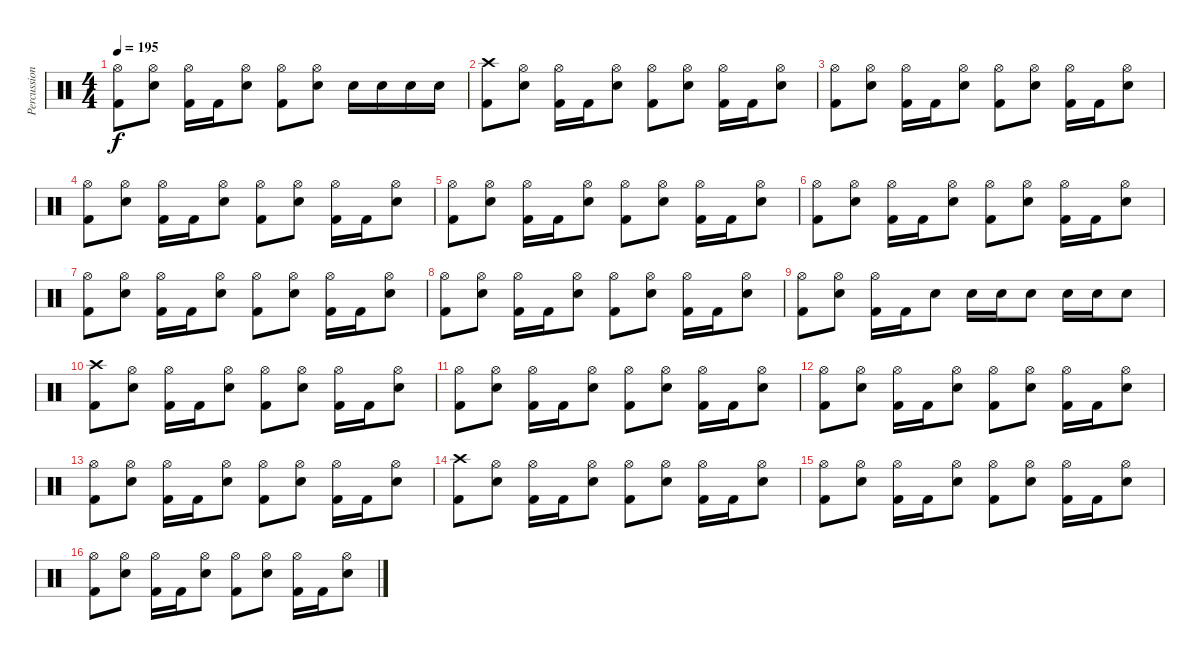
\track ("Percussion" "Percussion") {instrument percussion}
\staff {score}
\articulation defaults
\ts (4 4)
\tempo 195
\clef neutral
\ks c
("Hi-Hat (open)" "Kick (hit) 2").8{dy f} ("Hi-Hat (open)" "Electric Snare (hit)").8 ("Hi-Hat (open)" "Kick (hit) 2").16 "Kick (hit) 2".16 ("Hi-Hat (open)" "Electric Snare (hit)").8 ("Hi-Hat (open)" "Kick (hit) 2").8 ("Hi-Hat (open)" "Electric Snare (hit)").8 "Electric Snare (hit)".16 "Electric Snare (hit)".16 "Electric Snare (hit)".16 "Electric Snare (hit)".16 |
("Crash high (hit)" "Kick (hit) 2").8 ("Hi-Hat (open)" "Electric Snare (hit)").8 ("Hi-Hat (open)" "Kick (hit) 2").16 "Kick (hit) 2".16 ("Hi-Hat (open)" "Electric Snare (hit)").8 ("Hi-Hat (open)" "Kick (hit) 2").8 ("Hi-Hat (open)" "Electric Snare (hit)").8 ("Hi-Hat (open)" "Kick (hit) 2").16 "Kick (hit) 2".16 ("Hi-Hat (open)" "Electric Snare (hit)").8 |
("Hi-Hat (open)" "Kick (hit) 2").8 ("Hi-Hat (open)" "Electric Snare (hit)").8 ("Hi-Hat (open)" "Kick (hit) 2").16 "Kick (hit) 2".16 ("Hi-Hat (open)" "Electric Snare (hit)").8 ("Hi-Hat (open)" "Kick (hit) 2").8 ("Hi-Hat (open)" "Electric Snare (hit)").8 ("Hi-Hat (open)" "Kick (hit) 2").16 "Kick (hit) 2".16 ("Hi-Hat (open)" "Electric Snare (hit)").8 |
("Hi-Hat (open)" "Kick (hit) 2").8 ("Hi-Hat (open)" "Electric Snare (hit)").8 ("Hi-Hat (open)" "Kick (hit) 2").16 "Kick (hit) 2".16 ("Hi-Hat (open)" "Electric Snare (hit)").8 ("Hi-Hat (open)" "Kick (hit) 2").8 ("Hi-Hat (open)" "Electric Snare (hit)").8 ("Hi-Hat (open)" "Kick (hit) 2").16 "Kick (hit) 2".16 ("Hi-Hat (open)" "Electric Snare (hit)").8 |
("Hi-Hat (open)" "Kick (hit) 2").8 ("Hi-Hat (open)" "Electric Snare (hit)").8 ("Hi-Hat (open)" "Kick (hit) 2").16 "Kick (hit) 2".16 ("Hi-Hat (open)" "Electric Snare (hit)").8 ("Hi-Hat (open)" "Kick (hit) 2").8 ("Hi-Hat (open)" "Electric Snare (hit)").8 ("Hi-Hat (open)" "Kick (hit) 2").16 "Kick (hit) 2".16 ("Hi-Hat (open)" "Electric Snare (hit)").8 |
("Hi-Hat (open)" "Kick (hit) 2").8 ("Hi-Hat (open)" "Electric Snare (hit)").8 ("Hi-Hat (open)" "Kick (hit) 2").16 "Kick (hit) 2".16 ("Hi-Hat (open)" "Electric Snare (hit)").8 ("Hi-Hat (open)" "Kick (hit) 2").8 ("Hi-Hat (open)" "Electric Snare (hit)").8 ("Hi-Hat (open)" "Kick (hit) 2").16 "Kick (hit) 2".16 ("Hi-Hat (open)" "Electric Snare (hit)").8 |
("Hi-Hat (open)" "Kick (hit) 2").8 ("Hi-Hat (open)" "Electric Snare (hit)").8 ("Hi-Hat (open)" "Kick (hit) 2").16 "Kick (hit) 2".16 ("Hi-Hat (open)" "Electric Snare (hit)").8 ("Hi-Hat (open)" "Kick (hit) 2").8 ("Hi-Hat (open)" "Electric Snare (hit)").8 ("Hi-Hat (open)" "Kick (hit) 2").16 "Kick (hit) 2".16 ("Hi-Hat (open)" "Electric Snare (hit)").8 |
("Hi-Hat (open)" "Kick (hit) 2").8 ("Hi-Hat (open)" "Electric Snare (hit)").8 ("Hi-Hat (open)" "Kick (hit) 2").16 "Kick (hit) 2".16 ("Hi-Hat (open)" "Electric Snare (hit)").8 ("Hi-Hat (open)" "Kick (hit) 2").8 ("Hi-Hat (open)" "Electric Snare (hit)").8 ("Hi-Hat (open)" "Kick (hit) 2").16 "Kick (hit) 2".16 ("Hi-Hat (open)" "Electric Snare (hit)").8 |
("Hi-Hat (open)" "Kick (hit) 2").8 ("Hi-Hat (open)" "Electric Snare (hit)").8 ("Hi-Hat (open)" "Kick (hit) 2").16 "Kick (hit) 2".16 "Electric Snare (hit)".8 "Electric Snare (hit)".16 "Electric Snare (hit)".16 "Electric Snare (hit)".8 "Electric Snare (hit)".16 "Electric Snare (hit)".16 "Electric Snare (hit)".8 |
("Crash high (hit)" "Kick (hit) 2").8 ("Hi-Hat (open)" "Electric Snare (hit)").8 ("Hi-Hat (open)" "Kick (hit) 2").16 "Kick (hit) 2".16 ("Hi-Hat (open)" "Electric Snare (hit)").8 ("Hi-Hat (open)" "Kick (hit) 2").8 ("Hi-Hat (open)" "Electric Snare (hit)").8 ("Hi-Hat (open)" "Kick (hit) 2").16 "Kick (hit) 2".16 ("Hi-Hat (open)" "Electric Snare (hit)").8 |
("Hi-Hat (open)" "Kick (hit) 2").8 ("Hi-Hat (open)" "Electric Snare (hit)").8 ("Hi-Hat (open)" "Kick (hit) 2").16 "Kick (hit) 2".16 ("Hi-Hat (open)" "Electric Snare (hit)").8 ("Hi-Hat (open)" "Kick (hit) 2").8 ("Hi-Hat (open)" "Electric Snare (hit)").8 ("Hi-Hat (open)" "Kick (hit) 2").16 "Kick (hit) 2".16 ("Hi-Hat (open)" "Electric Snare (hit)").8 |
("Hi-Hat (open)" "Kick (hit) 2").8 ("Hi-Hat (open)" "Electric Snare (hit)").8 ("Hi-Hat (open)" "Kick (hit) 2").16 "Kick (hit) 2".16 ("Hi-Hat (open)" "Electric Snare (hit)").8 ("Hi-Hat (open)" "Kick (hit) 2").8 ("Hi-Hat (open)" "Electric Snare (hit)").8 ("Hi-Hat (open)" "Kick (hit) 2").16 "Kick (hit) 2".16 ("Hi-Hat (open)" "Electric Snare (hit)").8 |
("Hi-Hat (open)" "Kick (hit) 2").8 ("Hi-Hat (open)" "Electric Snare (hit)").8 ("Hi-Hat (open)" "Kick (hit) 2").16 "Kick (hit) 2".16 ("Hi-Hat (open)" "Electric Snare (hit)").8 ("Hi-Hat (open)" "Kick (hit) 2").8 ("Hi-Hat (open)" "Electric Snare (hit)").8 ("Hi-Hat (open)" "Kick (hit) 2").16 "Kick (hit) 2".16 ("Hi-Hat (open)" "Electric Snare (hit)").8 |
("Crash high (hit)" "Kick (hit) 2").8 ("Hi-Hat (open)" "Electric Snare (hit)").8 ("Hi-Hat (open)" "Kick (hit) 2").16 "Kick (hit) 2".16 ("Hi-Hat (open)" "Electric Snare (hit)").8 ("Hi-Hat (open)" "Kick (hit) 2").8 ("Hi-Hat (open)" "Electric Snare (hit)").8 ("Hi-Hat (open)" "Kick (hit) 2").16 "Kick (hit) 2".16 ("Hi-Hat (open)" "Electric Snare (hit)").8 |
("Hi-Hat (open)" "Kick (hit) 2").8 ("Hi-Hat (open)" "Electric Snare (hit)").8 ("Hi-Hat (open)" "Kick (hit) 2").16 "Kick (hit) 2".16 ("Hi-Hat (open)" "Electric Snare (hit)").8 ("Hi-Hat (open)" "Kick (hit) 2").8 ("Hi-Hat (open)" "Electric Snare (hit)").8 ("Hi-Hat (open)" "Kick (hit) 2").16 "Kick (hit) 2".16 ("Hi-Hat (open)" "Electric Snare (hit)").8 |
("Hi-Hat (open)" "Kick (hit) 2").8 ("Hi-Hat (open)" "Electric Snare (hit)").8 ("Hi-Hat (open)" "Kick (hit) 2").16 "Kick (hit) 2".16 ("Hi-Hat (open)" "Electric Snare (hit)").8 ("Hi-Hat (open)" "Kick (hit) 2").8 ("Hi-Hat (open)" "Electric Snare (hit)").8 ("Hi-Hat (open)" "Kick (hit) 2").16 "Kick (hit) 2".16 ("Hi-Hat (open)" "Electric Snare (hit)").8
